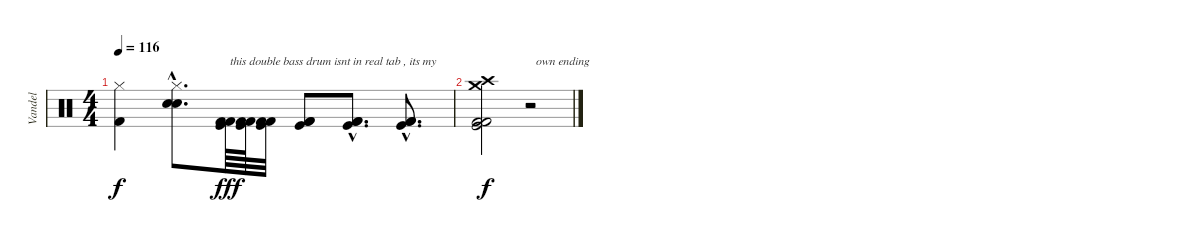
\track ("Vandel" "Vandel") {instrument percussion}
\staff {score}
\articulation defaults
\ts (4 4)
\tempo 116
\clef neutral
\ks c
("Hi-Hat (closed)" "Kick (hit) 2").4{dy f} ("Hi-Hat (closed)"{hac} "Electric Snare (hit)"{hac} "Electric Snare (hit)"{hac}).8{d} ("Kick (hit) 2" "Kick (hit)" "Kick (hit) 2").64{txt "this double bass drum isnt in real tab , its my" dy fff} ("Kick (hit) 2" "Kick (hit)" "Kick (hit) 2").64 ("Kick (hit) 2" "Kick (hit)" "Kick (hit) 2").32 ("Kick (hit) 2" "Kick (hit)" "Kick (hit) 2").8 ("Kick (hit) 2"{hac} "Kick (hit)"{hac} "Kick (hit) 2"{hac}).8{d} ("Kick (hit) 2"{hac} "Kick (hit)"{hac} "Kick (hit) 2"{hac}).8{d} |
("Crash high (hit)" "Crash medium (hit)" "Kick (hit) 2" "Kick (hit)" "Kick (hit) 2").2{txt "                own ending" dy f} r.2
